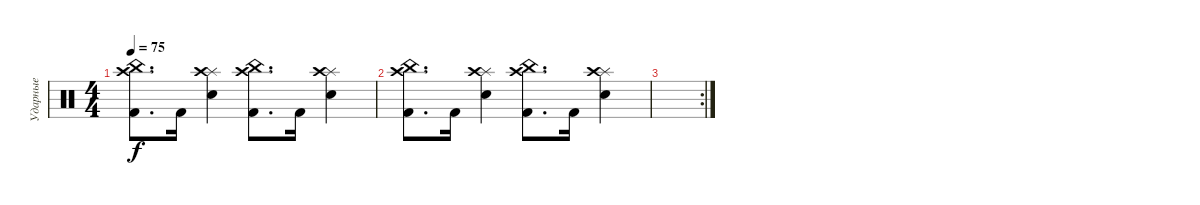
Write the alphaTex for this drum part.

\track ("Ударные" "Ударные") {instrument percussion}
\staff {score}
\articulation defaults
\ts (4 4)
\tempo 75
\clef neutral
\ks c
("Crash high (hit)" "China (hit)" "Kick (hit) 2").8{d dy f} "Kick (hit) 2".16 ("Splash (hit)" "Crash high (hit)" "Electric Snare (hit)").4 ("China (hit)" "Crash high (hit)" "Kick (hit) 2").8{d} "Kick (hit) 2".16 ("Splash (hit)" "Crash high (hit)" "Electric Snare (hit)").4 |
("Crash high (hit)" "China (hit)" "Kick (hit) 2").8{d} "Kick (hit) 2".16 ("Splash (hit)" "Crash high (hit)" "Electric Snare (hit)").4 ("China (hit)" "Crash high (hit)" "Kick (hit) 2").8{d} "Kick (hit) 2".16 ("Splash (hit)" "Crash high (hit)" "Electric Snare (hit)").4 |
\rc 2
